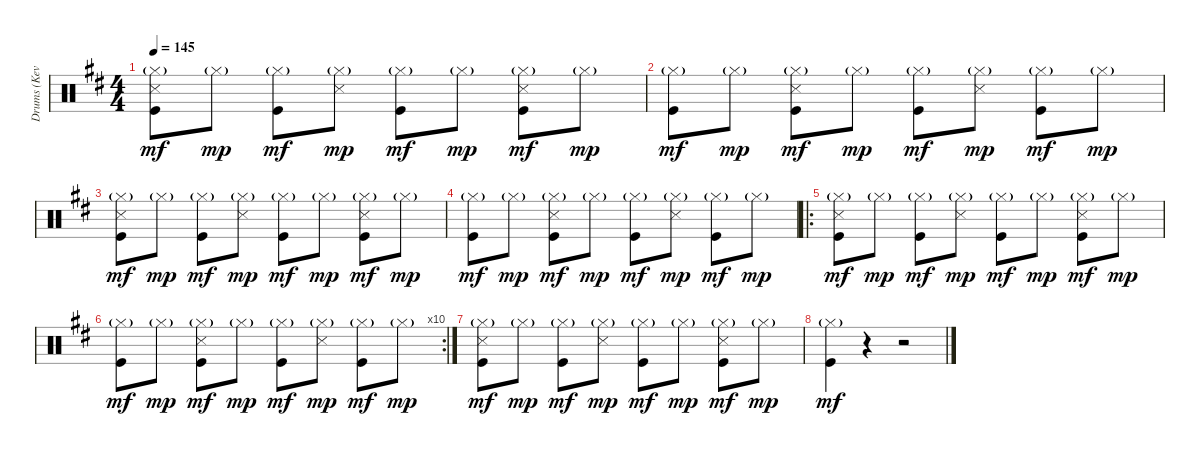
\track ("Drums (Kevin Haskins)" "Drums (Kev") {instrument percussion}
\staff {score}
\articulation defaults
\ts (4 4)
\tempo 145
\clef neutral
\ks d
("Hi-Hat (closed)"{g} "Snare (side stick) 3" "Kick (hit)").8{dy mf} "Hi-Hat (closed)"{g}.8{dy mp} ("Hi-Hat (closed)"{g} "Kick (hit)").8{dy mf} ("Hi-Hat (closed)"{g} "Snare (side stick) 3").8{dy mp} ("Hi-Hat (closed)"{g} "Kick (hit)").8{dy mf} "Hi-Hat (closed)"{g}.8{dy mp} ("Hi-Hat (closed)"{g} "Snare (side stick) 3" "Kick (hit)").8{dy mf} "Hi-Hat (closed)"{g}.8{dy mp} |
("Hi-Hat (closed)"{g} "Kick (hit)").8{dy mf} "Hi-Hat (closed)"{g}.8{dy mp} ("Hi-Hat (closed)"{g} "Snare (side stick) 3" "Kick (hit)").8{dy mf} "Hi-Hat (closed)"{g}.8{dy mp} ("Hi-Hat (closed)"{g} "Kick (hit)").8{dy mf} ("Hi-Hat (closed)"{g} "Snare (side stick) 3").8{dy mp} ("Hi-Hat (closed)"{g} "Kick (hit)").8{dy mf} "Hi-Hat (closed)"{g}.8{dy mp} |
("Hi-Hat (closed)"{g} "Snare (side stick) 3" "Kick (hit)").8{dy mf} "Hi-Hat (closed)"{g}.8{dy mp} ("Hi-Hat (closed)"{g} "Kick (hit)").8{dy mf} ("Hi-Hat (closed)"{g} "Snare (side stick) 3").8{dy mp} ("Hi-Hat (closed)"{g} "Kick (hit)").8{dy mf} "Hi-Hat (closed)"{g}.8{dy mp} ("Hi-Hat (closed)"{g} "Snare (side stick) 3" "Kick (hit)").8{dy mf} "Hi-Hat (closed)"{g}.8{dy mp} |
("Hi-Hat (closed)"{g} "Kick (hit)").8{dy mf} "Hi-Hat (closed)"{g}.8{dy mp} ("Hi-Hat (closed)"{g} "Snare (side stick) 3" "Kick (hit)").8{dy mf} "Hi-Hat (closed)"{g}.8{dy mp} ("Hi-Hat (closed)"{g} "Kick (hit)").8{dy mf} ("Hi-Hat (closed)"{g} "Snare (side stick) 3").8{dy mp} ("Hi-Hat (closed)"{g} "Kick (hit)").8{dy mf} "Hi-Hat (closed)"{g}.8{dy mp} |
\ro
("Hi-Hat (closed)"{g} "Snare (side stick) 3" "Kick (hit)").8{dy mf} "Hi-Hat (closed)"{g}.8{dy mp} ("Hi-Hat (closed)"{g} "Kick (hit)").8{dy mf} ("Hi-Hat (closed)"{g} "Snare (side stick) 3").8{dy mp} ("Hi-Hat (closed)"{g} "Kick (hit)").8{dy mf} "Hi-Hat (closed)"{g}.8{dy mp} ("Hi-Hat (closed)"{g} "Snare (side stick) 3" "Kick (hit)").8{dy mf} "Hi-Hat (closed)"{g}.8{dy mp} |
\rc 10
("Hi-Hat (closed)"{g} "Kick (hit)").8{dy mf} "Hi-Hat (closed)"{g}.8{dy mp} ("Hi-Hat (closed)"{g} "Snare (side stick) 3" "Kick (hit)").8{dy mf} "Hi-Hat (closed)"{g}.8{dy mp} ("Hi-Hat (closed)"{g} "Kick (hit)").8{dy mf} ("Hi-Hat (closed)"{g} "Snare (side stick) 3").8{dy mp} ("Hi-Hat (closed)"{g} "Kick (hit)").8{dy mf} "Hi-Hat (closed)"{g}.8{dy mp} |
("Hi-Hat (closed)"{g} "Snare (side stick) 3" "Kick (hit)").8{dy mf} "Hi-Hat (closed)"{g}.8{dy mp} ("Hi-Hat (closed)"{g} "Kick (hit)").8{dy mf} ("Hi-Hat (closed)"{g} "Snare (side stick) 3").8{dy mp} ("Hi-Hat (closed)"{g} "Kick (hit)").8{dy mf} "Hi-Hat (closed)"{g}.8{dy mp} ("Hi-Hat (closed)"{g} "Snare (side stick) 3" "Kick (hit)").8{dy mf} "Hi-Hat (closed)"{g}.8{dy mp} |
("Hi-Hat (closed)"{g} "Kick (hit)").4{dy mf} r.4 r.2
